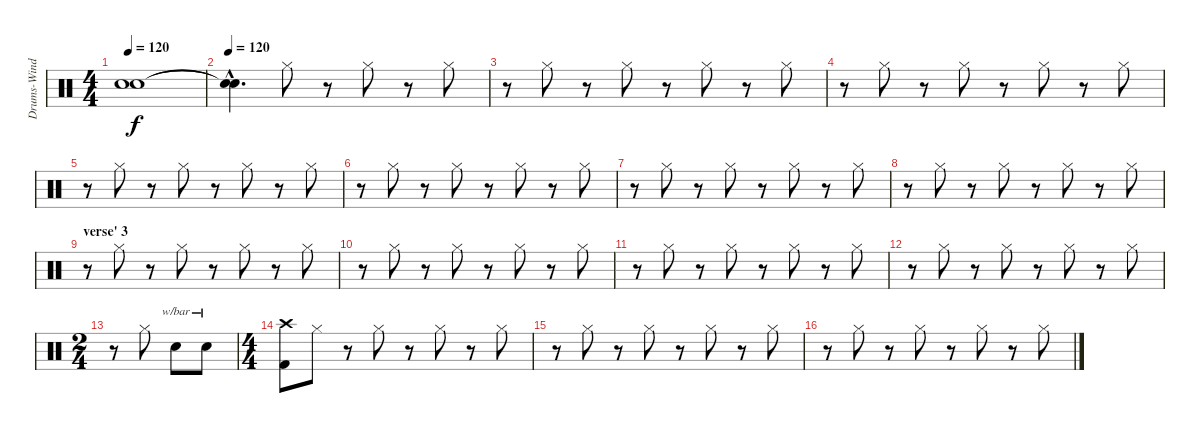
\track ("Drums-Wind (Bengerg)" "Drums-Wind") {instrument percussion}
\staff {score}
\articulation defaults
\ts (4 4)
\tempo 120
\clef neutral
\ks c
("Snare (hit)"{t} "Snare (hit)"{t}).1{dy f} |
\tempo 120
("Snare (hit)"{hac t} "Snare (hit)"{hac t}).4{d} "Hi-Hat (closed)".8 r.8 "Hi-Hat (closed)".8 r.8 "Hi-Hat (closed)".8 |
r.8 "Hi-Hat (closed)".8 r.8 "Hi-Hat (closed)".8 r.8 "Hi-Hat (closed)".8 r.8 "Hi-Hat (closed)".8 |
r.8 "Hi-Hat (closed)".8 r.8 "Hi-Hat (closed)".8 r.8 "Hi-Hat (closed)".8 r.8 "Hi-Hat (closed)".8 |
r.8 "Hi-Hat (closed)".8 r.8 "Hi-Hat (closed)".8 r.8 "Hi-Hat (closed)".8 r.8 "Hi-Hat (closed)".8 |
r.8 "Hi-Hat (closed)".8 r.8 "Hi-Hat (closed)".8 r.8 "Hi-Hat (closed)".8 r.8 "Hi-Hat (closed)".8 |
r.8 "Hi-Hat (closed)".8 r.8 "Hi-Hat (closed)".8 r.8 "Hi-Hat (closed)".8 r.8 "Hi-Hat (closed)".8 |
r.8 "Hi-Hat (closed)".8 r.8 "Hi-Hat (closed)".8 r.8 "Hi-Hat (closed)".8 r.8 "Hi-Hat (closed)".8 |
\section ("" "verse' 3")
r.8 "Hi-Hat (closed)".8 r.8 "Hi-Hat (closed)".8 r.8 "Hi-Hat (closed)".8 r.8 "Hi-Hat (closed)".8 |
r.8 "Hi-Hat (closed)".8 r.8 "Hi-Hat (closed)".8 r.8 "Hi-Hat (closed)".8 r.8 "Hi-Hat (closed)".8 |
r.8 "Hi-Hat (closed)".8 r.8 "Hi-Hat (closed)".8 r.8 "Hi-Hat (closed)".8 r.8 "Hi-Hat (closed)".8 |
r.8 "Hi-Hat (closed)".8 r.8 "Hi-Hat (closed)".8 r.8 "Hi-Hat (closed)".8 r.8 "Hi-Hat (closed)".8 |
\ts (2 4)
r.8 "Hi-Hat (closed)".8 "Electric Snare (hit)".8{tbe (custom default 0 12 45 12 60 0) balance 16} "Electric Snare (hit)".8{tbe (custom default 0 12 45 12 60 0) balance 0} |
\ts (4 4)
("Crash high (hit)" "Kick (hit) 2").8{balance 8} "Hi-Hat (closed)".8 r.8 "Hi-Hat (closed)".8 r.8 "Hi-Hat (closed)".8 r.8 "Hi-Hat (closed)".8 |
r.8 "Hi-Hat (closed)".8 r.8 "Hi-Hat (closed)".8 r.8 "Hi-Hat (closed)".8 r.8 "Hi-Hat (closed)".8 |
r.8 "Hi-Hat (closed)".8 r.8 "Hi-Hat (closed)".8 r.8 "Hi-Hat (closed)".8 r.8 "Hi-Hat (closed)".8
